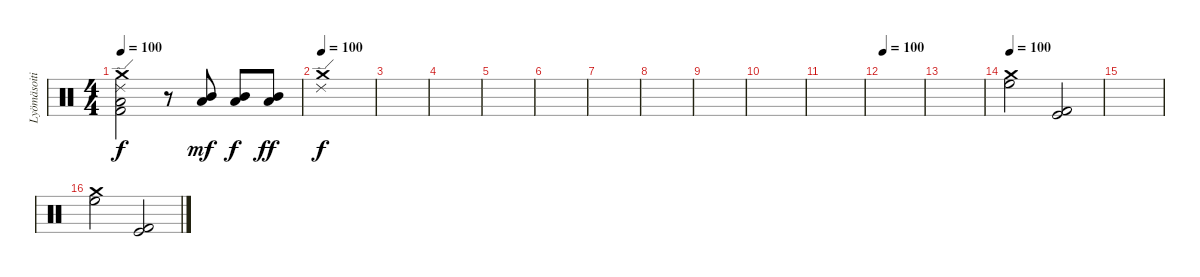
\track ("Lyömäsoitin" "Lyömäsoiti") {instrument percussion}
\staff {score}
\articulation defaults
\ts (4 4)
\tempo 100
\clef neutral
\ks c
("Ride (edge) 2" "Crash medium (hit)" "Kick (hit) 2" "Low Tom (hit)").2{dy f} r.8 ("Mid Tom (hit)" "Low Tom (hit)").8{dy mf} ("Mid Tom (hit)" "Low Tom (hit)").8{dy f} ("Mid Tom (hit)" "Low Tom (hit)").8{dy ff} |
\tempo 100
("Ride (edge) 2" "Crash medium (hit)").1{dy f} |
|
|
|
|
|
|
|
|
|
\tempo 100
|
|
\tempo 100
("Crash medium (hit)" "High Floor Tom (hit)").2 ("Kick (hit) 2" "Kick (hit)").2 |
|
("Crash medium (hit)" "High Floor Tom (hit)").2 ("Kick (hit) 2" "Kick (hit)").2
